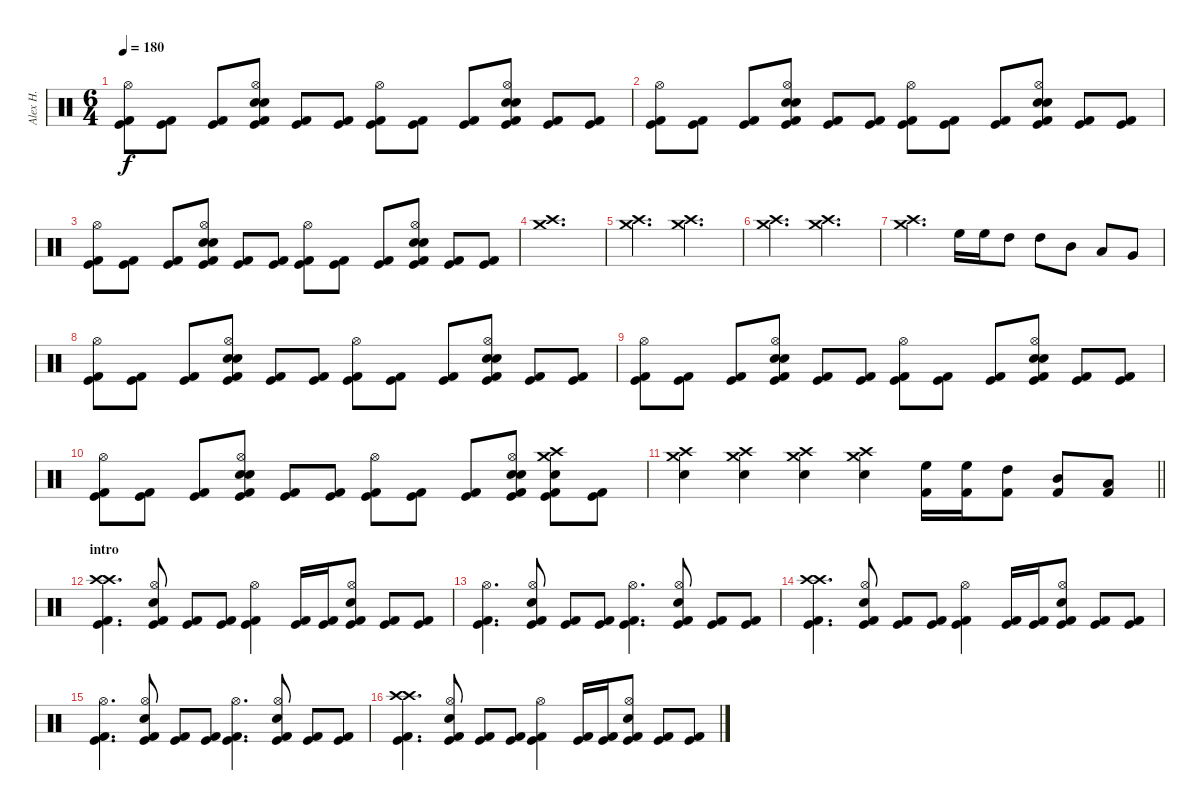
\track ("Alex H." "Alex H.") {instrument percussion}
\staff {score}
\articulation defaults
\ts (6 4)
\tempo 180
\clef neutral
\ks c
("Kick (hit) 2" "Kick (hit)" "Hi-Hat (open)").8{dy f} ("Kick (hit) 2" "Kick (hit)").8 ("Kick (hit) 2" "Kick (hit)").8 ("Kick (hit) 2" "Kick (hit)" "Snare (hit) 2" "Hi-Hat (open)" "Electric Snare (hit)").8 ("Kick (hit) 2" "Kick (hit)").8 ("Kick (hit) 2" "Kick (hit)").8 ("Kick (hit) 2" "Kick (hit)" "Hi-Hat (open)").8 ("Kick (hit) 2" "Kick (hit)").8 ("Kick (hit) 2" "Kick (hit)").8 ("Kick (hit) 2" "Kick (hit)" "Snare (hit) 2" "Electric Snare (hit)" "Hi-Hat (open)").8 ("Kick (hit) 2" "Kick (hit)").8 ("Kick (hit) 2" "Kick (hit)").8 |
("Kick (hit) 2" "Kick (hit)" "Hi-Hat (open)").8 ("Kick (hit) 2" "Kick (hit)").8 ("Kick (hit) 2" "Kick (hit)").8 ("Kick (hit) 2" "Kick (hit)" "Snare (hit) 2" "Hi-Hat (open)" "Electric Snare (hit)").8 ("Kick (hit) 2" "Kick (hit)").8 ("Kick (hit) 2" "Kick (hit)").8 ("Kick (hit) 2" "Kick (hit)" "Hi-Hat (open)").8 ("Kick (hit) 2" "Kick (hit)").8 ("Kick (hit) 2" "Kick (hit)").8 ("Kick (hit) 2" "Kick (hit)" "Snare (hit) 2" "Electric Snare (hit)" "Hi-Hat (open)").8 ("Kick (hit) 2" "Kick (hit)").8 ("Kick (hit) 2" "Kick (hit)").8 |
("Kick (hit) 2" "Kick (hit)" "Hi-Hat (open)").8 ("Kick (hit) 2" "Kick (hit)").8 ("Kick (hit) 2" "Kick (hit)").8 ("Kick (hit) 2" "Kick (hit)" "Snare (hit) 2" "Hi-Hat (open)" "Electric Snare (hit)").8 ("Kick (hit) 2" "Kick (hit)").8 ("Kick (hit) 2" "Kick (hit)").8 ("Kick (hit) 2" "Kick (hit)" "Hi-Hat (open)").8 ("Kick (hit) 2" "Kick (hit)").8 ("Kick (hit) 2" "Kick (hit)").8 ("Kick (hit) 2" "Kick (hit)" "Snare (hit) 2" "Electric Snare (hit)" "Hi-Hat (open)").8 ("Kick (hit) 2" "Kick (hit)").8 ("Kick (hit) 2" "Kick (hit)").8 |
("Crash medium (hit)" "Crash high (hit)").1{d} |
("Crash medium (hit)" "Crash high (hit)").2{d} ("Crash medium (hit)" "Crash high (hit)").2{d} |
("Crash medium (hit)" "Crash high (hit)").2{d} ("Crash medium (hit)" "Crash high (hit)").2{d} |
("Crash medium (hit)" "Crash high (hit)").2{d} "High Floor Tom (hit)".16 "High Floor Tom (hit)".16 "High Tom (hit)".8 "High Tom (hit)".8 "Mid Tom (hit)".8 "Low Tom (hit)".8 "Very Low Tom (hit)".8 |
("Kick (hit) 2" "Kick (hit)" "Hi-Hat (open)").8 ("Kick (hit) 2" "Kick (hit)").8 ("Kick (hit) 2" "Kick (hit)").8 ("Kick (hit) 2" "Kick (hit)" "Snare (hit) 2" "Hi-Hat (open)" "Electric Snare (hit)").8 ("Kick (hit) 2" "Kick (hit)").8 ("Kick (hit) 2" "Kick (hit)").8 ("Kick (hit) 2" "Kick (hit)" "Hi-Hat (open)").8 ("Kick (hit) 2" "Kick (hit)").8 ("Kick (hit) 2" "Kick (hit)").8 ("Kick (hit) 2" "Kick (hit)" "Snare (hit) 2" "Electric Snare (hit)" "Hi-Hat (open)").8 ("Kick (hit) 2" "Kick (hit)").8 ("Kick (hit) 2" "Kick (hit)").8 |
("Kick (hit) 2" "Kick (hit)" "Hi-Hat (open)").8 ("Kick (hit) 2" "Kick (hit)").8 ("Kick (hit) 2" "Kick (hit)").8 ("Kick (hit) 2" "Kick (hit)" "Snare (hit) 2" "Hi-Hat (open)" "Electric Snare (hit)").8 ("Kick (hit) 2" "Kick (hit)").8 ("Kick (hit) 2" "Kick (hit)").8 ("Kick (hit) 2" "Kick (hit)" "Hi-Hat (open)").8 ("Kick (hit) 2" "Kick (hit)").8 ("Kick (hit) 2" "Kick (hit)").8 ("Kick (hit) 2" "Kick (hit)" "Snare (hit) 2" "Electric Snare (hit)" "Hi-Hat (open)").8 ("Kick (hit) 2" "Kick (hit)").8 ("Kick (hit) 2" "Kick (hit)").8 |
("Kick (hit) 2" "Kick (hit)" "Hi-Hat (open)").8 ("Kick (hit) 2" "Kick (hit)").8 ("Kick (hit) 2" "Kick (hit)").8 ("Kick (hit) 2" "Kick (hit)" "Snare (hit) 2" "Hi-Hat (open)" "Electric Snare (hit)").8 ("Kick (hit) 2" "Kick (hit)").8 ("Kick (hit) 2" "Kick (hit)").8 ("Kick (hit) 2" "Kick (hit)" "Hi-Hat (open)").8 ("Kick (hit) 2" "Kick (hit)").8 ("Kick (hit) 2" "Kick (hit)").8 ("Kick (hit) 2" "Kick (hit)" "Snare (hit) 2" "Electric Snare (hit)" "Hi-Hat (open)").8 ("Kick (hit) 2" "Kick (hit)" "Snare (hit) 2" "Crash high (hit)" "Crash medium (hit)").8 ("Kick (hit) 2" "Kick (hit)").8 |
\barLineRight lightlight
("Snare (hit) 2" "Crash medium (hit)" "Crash high (hit)").4 ("Snare (hit) 2" "Crash medium (hit)" "Crash high (hit)").4 ("Snare (hit) 2" "Crash medium (hit)" "Crash high (hit)").4 ("Snare (hit) 2" "Crash medium (hit)" "Crash high (hit)").4 ("Kick (hit) 2" "High Floor Tom (hit)").16 ("Kick (hit) 2" "High Floor Tom (hit)").16 ("Kick (hit) 2" "High Tom (hit)").8 ("Kick (hit) 2" "Mid Tom (hit)").8 ("Kick (hit) 2" "Low Tom (hit)").8 |
\section ("" "intro")
("Kick (hit) 2" "Crash high (hit)" "Crash high (hit)" "Kick (hit)").4{d} ("Kick (hit) 2" "Electric Snare (hit)" "Hi-Hat (open)" "Kick (hit)").8 ("Kick (hit) 2" "Kick (hit)").8 ("Kick (hit) 2" "Kick (hit)").8 ("Kick (hit) 2" "Hi-Hat (open)" "Kick (hit)").4 ("Kick (hit) 2" "Kick (hit)").16 ("Kick (hit) 2" "Kick (hit)").16 ("Kick (hit) 2" "Electric Snare (hit)" "Hi-Hat (open)" "Kick (hit)").8 ("Kick (hit) 2" "Kick (hit)").8 ("Kick (hit) 2" "Kick (hit)").8 |
("Kick (hit) 2" "Hi-Hat (open)" "Kick (hit)").4{d} ("Kick (hit) 2" "Electric Snare (hit)" "Hi-Hat (open)" "Kick (hit)").8 ("Kick (hit) 2" "Kick (hit)").8 ("Kick (hit) 2" "Kick (hit)").8 ("Kick (hit) 2" "Hi-Hat (open)" "Kick (hit)").4{d} ("Kick (hit) 2" "Electric Snare (hit)" "Hi-Hat (open)" "Kick (hit)").8 ("Kick (hit) 2" "Kick (hit)").8 ("Kick (hit) 2" "Kick (hit)").8 |
("Kick (hit) 2" "Crash high (hit)" "Crash high (hit)" "Kick (hit)").4{d} ("Kick (hit) 2" "Electric Snare (hit)" "Hi-Hat (open)" "Kick (hit)").8 ("Kick (hit) 2" "Kick (hit)").8 ("Kick (hit) 2" "Kick (hit)").8 ("Kick (hit) 2" "Hi-Hat (open)" "Kick (hit)").4 ("Kick (hit) 2" "Kick (hit)").16 ("Kick (hit) 2" "Kick (hit)").16 ("Kick (hit) 2" "Electric Snare (hit)" "Hi-Hat (open)" "Kick (hit)").8 ("Kick (hit) 2" "Kick (hit)").8 ("Kick (hit) 2" "Kick (hit)").8 |
("Kick (hit) 2" "Hi-Hat (open)" "Kick (hit)").4{d} ("Kick (hit) 2" "Electric Snare (hit)" "Hi-Hat (open)" "Kick (hit)").8 ("Kick (hit) 2" "Kick (hit)").8 ("Kick (hit) 2" "Kick (hit)").8 ("Kick (hit) 2" "Hi-Hat (open)" "Kick (hit)").4{d} ("Kick (hit) 2" "Electric Snare (hit)" "Hi-Hat (open)" "Kick (hit)").8 ("Kick (hit) 2" "Kick (hit)").8 ("Kick (hit) 2" "Kick (hit)").8 |
("Kick (hit) 2" "Crash high (hit)" "Crash high (hit)" "Kick (hit)").4{d} ("Kick (hit) 2" "Electric Snare (hit)" "Hi-Hat (open)" "Kick (hit)").8 ("Kick (hit) 2" "Kick (hit)").8 ("Kick (hit) 2" "Kick (hit)").8 ("Kick (hit) 2" "Hi-Hat (open)" "Kick (hit)").4 ("Kick (hit) 2" "Kick (hit)").16 ("Kick (hit) 2" "Kick (hit)").16 ("Kick (hit) 2" "Electric Snare (hit)" "Hi-Hat (open)" "Kick (hit)").8 ("Kick (hit) 2" "Kick (hit)").8 ("Kick (hit) 2" "Kick (hit)").8
